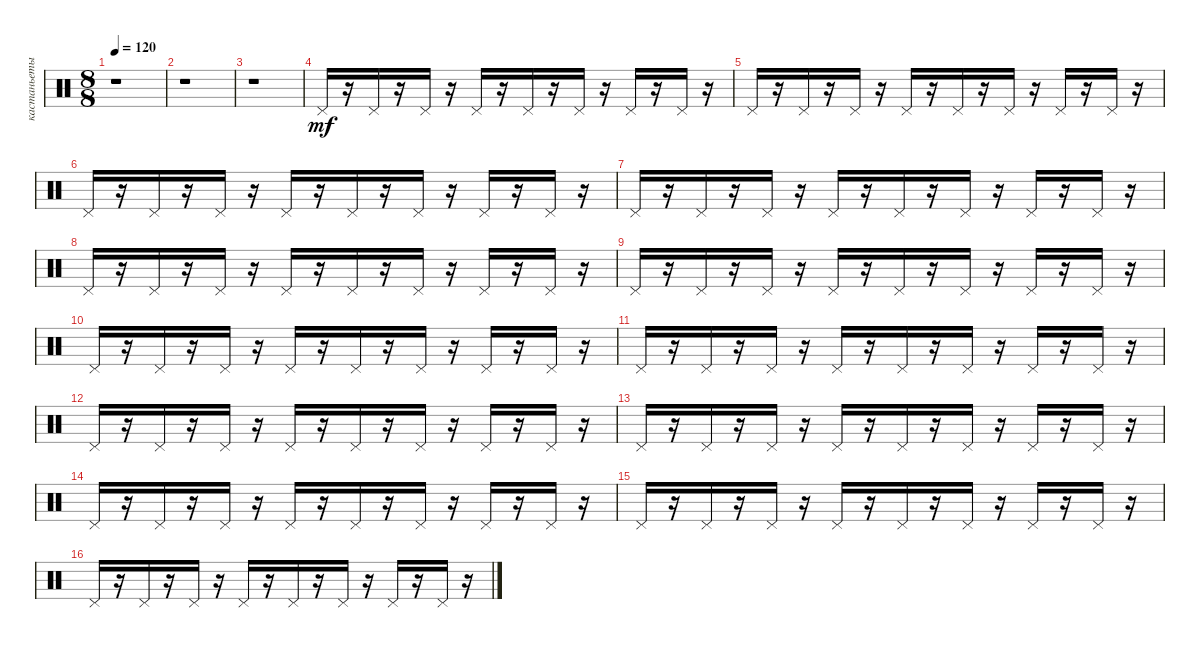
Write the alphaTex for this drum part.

\track ("кастаньеты" "кастаньеты") {instrument percussion}
\staff {score}
\articulation defaults
\ts (8 8)
\tempo 120
\clef neutral
\ks c
r.1{dy mf} |
r.1 |
r.1 |
"Pedal Hi-Hat (hit)".16 r.16 "Pedal Hi-Hat (hit)".16 r.16 "Pedal Hi-Hat (hit)".16 r.16 "Pedal Hi-Hat (hit)".16 r.16 "Pedal Hi-Hat (hit)".16 r.16 "Pedal Hi-Hat (hit)".16 r.16 "Pedal Hi-Hat (hit)".16 r.16 "Pedal Hi-Hat (hit)".16 r.16 |
"Pedal Hi-Hat (hit)".16 r.16 "Pedal Hi-Hat (hit)".16 r.16 "Pedal Hi-Hat (hit)".16 r.16 "Pedal Hi-Hat (hit)".16 r.16 "Pedal Hi-Hat (hit)".16 r.16 "Pedal Hi-Hat (hit)".16 r.16 "Pedal Hi-Hat (hit)".16 r.16 "Pedal Hi-Hat (hit)".16 r.16 |
"Pedal Hi-Hat (hit)".16 r.16 "Pedal Hi-Hat (hit)".16 r.16 "Pedal Hi-Hat (hit)".16 r.16 "Pedal Hi-Hat (hit)".16 r.16 "Pedal Hi-Hat (hit)".16 r.16 "Pedal Hi-Hat (hit)".16 r.16 "Pedal Hi-Hat (hit)".16 r.16 "Pedal Hi-Hat (hit)".16 r.16 |
"Pedal Hi-Hat (hit)".16 r.16 "Pedal Hi-Hat (hit)".16 r.16 "Pedal Hi-Hat (hit)".16 r.16 "Pedal Hi-Hat (hit)".16 r.16 "Pedal Hi-Hat (hit)".16 r.16 "Pedal Hi-Hat (hit)".16 r.16 "Pedal Hi-Hat (hit)".16 r.16 "Pedal Hi-Hat (hit)".16 r.16 |
"Pedal Hi-Hat (hit)".16 r.16 "Pedal Hi-Hat (hit)".16 r.16 "Pedal Hi-Hat (hit)".16 r.16 "Pedal Hi-Hat (hit)".16 r.16 "Pedal Hi-Hat (hit)".16 r.16 "Pedal Hi-Hat (hit)".16 r.16 "Pedal Hi-Hat (hit)".16 r.16 "Pedal Hi-Hat (hit)".16 r.16 |
"Pedal Hi-Hat (hit)".16 r.16 "Pedal Hi-Hat (hit)".16 r.16 "Pedal Hi-Hat (hit)".16 r.16 "Pedal Hi-Hat (hit)".16 r.16 "Pedal Hi-Hat (hit)".16 r.16 "Pedal Hi-Hat (hit)".16 r.16 "Pedal Hi-Hat (hit)".16 r.16 "Pedal Hi-Hat (hit)".16 r.16 |
"Pedal Hi-Hat (hit)".16 r.16 "Pedal Hi-Hat (hit)".16 r.16 "Pedal Hi-Hat (hit)".16 r.16 "Pedal Hi-Hat (hit)".16 r.16 "Pedal Hi-Hat (hit)".16 r.16 "Pedal Hi-Hat (hit)".16 r.16 "Pedal Hi-Hat (hit)".16 r.16 "Pedal Hi-Hat (hit)".16 r.16 |
"Pedal Hi-Hat (hit)".16 r.16 "Pedal Hi-Hat (hit)".16 r.16 "Pedal Hi-Hat (hit)".16 r.16 "Pedal Hi-Hat (hit)".16 r.16 "Pedal Hi-Hat (hit)".16 r.16 "Pedal Hi-Hat (hit)".16 r.16 "Pedal Hi-Hat (hit)".16 r.16 "Pedal Hi-Hat (hit)".16 r.16 |
"Pedal Hi-Hat (hit)".16 r.16 "Pedal Hi-Hat (hit)".16 r.16 "Pedal Hi-Hat (hit)".16 r.16 "Pedal Hi-Hat (hit)".16 r.16 "Pedal Hi-Hat (hit)".16{volume 16} r.16 "Pedal Hi-Hat (hit)".16 r.16 "Pedal Hi-Hat (hit)".16 r.16 "Pedal Hi-Hat (hit)".16{volume 16} r.16 |
"Pedal Hi-Hat (hit)".16{volume 15} r.16 "Pedal Hi-Hat (hit)".16 r.16 "Pedal Hi-Hat (hit)".16{volume 15} r.16 "Pedal Hi-Hat (hit)".16{volume 15} r.16 "Pedal Hi-Hat (hit)".16{volume 15} r.16 "Pedal Hi-Hat (hit)".16{volume 14} r.16 "Pedal Hi-Hat (hit)".16 r.16 "Pedal Hi-Hat (hit)".16{volume 14} r.16 |
"Pedal Hi-Hat (hit)".16{volume 13} r.16 "Pedal Hi-Hat (hit)".16 r.16 "Pedal Hi-Hat (hit)".16{volume 13} r.16 "Pedal Hi-Hat (hit)".16{volume 12} r.16 "Pedal Hi-Hat (hit)".16{volume 12} r.16 "Pedal Hi-Hat (hit)".16 r.16 "Pedal Hi-Hat (hit)".16{volume 11} r.16 "Pedal Hi-Hat (hit)".16{volume 11} r.16 |
"Pedal Hi-Hat (hit)".16{volume 11} r.16 "Pedal Hi-Hat (hit)".16 r.16 "Pedal Hi-Hat (hit)".16{volume 10} r.16 "Pedal Hi-Hat (hit)".16{volume 10} r.16 "Pedal Hi-Hat (hit)".16{volume 10} r.16 "Pedal Hi-Hat (hit)".16 r.16 "Pedal Hi-Hat (hit)".16{volume 9} r.16 "Pedal Hi-Hat (hit)".16{volume 9} r.16 |
"Pedal Hi-Hat (hit)".16{volume 9} r.16 "Pedal Hi-Hat (hit)".16{volume 9} r.16 "Pedal Hi-Hat (hit)".16{volume 8} r.16 "Pedal Hi-Hat (hit)".16 r.16 "Pedal Hi-Hat (hit)".16{volume 8} r.16 "Pedal Hi-Hat (hit)".16{volume 8} r.16 "Pedal Hi-Hat (hit)".16{volume 8} r.16 "Pedal Hi-Hat (hit)".16{volume 7} r.16
